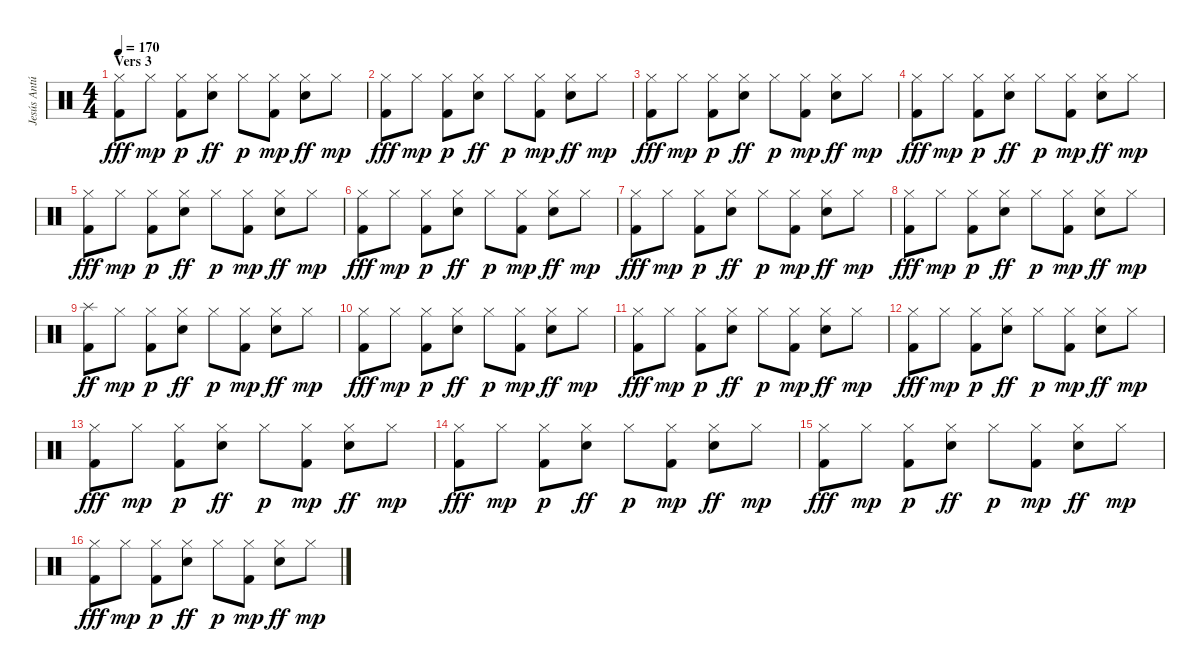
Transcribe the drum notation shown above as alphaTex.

\track ("Jesús Antúnez (Bateria)" "Jesús Antú") {instrument percussion}
\staff {score}
\articulation defaults
\ts (4 4)
\section ("" "Vers 3")
\tempo 170
\clef neutral
\ks c
("Kick (hit) 2" "Hi-Hat (closed)").8{dy fff} "Hi-Hat (closed)".8{dy mp} ("Kick (hit) 2" "Hi-Hat (closed)").8{dy p} ("Hi-Hat (closed)" "Electric Snare (hit)").8{dy ff} "Hi-Hat (closed)".8{dy p} ("Kick (hit) 2" "Hi-Hat (closed)").8{dy mp} ("Hi-Hat (closed)" "Electric Snare (hit)").8{dy ff} "Hi-Hat (closed)".8{dy mp} |
("Kick (hit) 2" "Hi-Hat (closed)").8{dy fff} "Hi-Hat (closed)".8{dy mp} ("Kick (hit) 2" "Hi-Hat (closed)").8{dy p} ("Hi-Hat (closed)" "Electric Snare (hit)").8{dy ff} "Hi-Hat (closed)".8{dy p} ("Kick (hit) 2" "Hi-Hat (closed)").8{dy mp} ("Hi-Hat (closed)" "Electric Snare (hit)").8{dy ff} "Hi-Hat (closed)".8{dy mp} |
("Kick (hit) 2" "Hi-Hat (closed)").8{dy fff} "Hi-Hat (closed)".8{dy mp} ("Kick (hit) 2" "Hi-Hat (closed)").8{dy p} ("Hi-Hat (closed)" "Electric Snare (hit)").8{dy ff} "Hi-Hat (closed)".8{dy p} ("Kick (hit) 2" "Hi-Hat (closed)").8{dy mp} ("Hi-Hat (closed)" "Electric Snare (hit)").8{dy ff} "Hi-Hat (closed)".8{dy mp} |
("Kick (hit) 2" "Hi-Hat (closed)").8{dy fff} "Hi-Hat (closed)".8{dy mp} ("Kick (hit) 2" "Hi-Hat (closed)").8{dy p} ("Hi-Hat (closed)" "Electric Snare (hit)").8{dy ff} "Hi-Hat (closed)".8{dy p} ("Kick (hit) 2" "Hi-Hat (closed)").8{dy mp} ("Hi-Hat (closed)" "Electric Snare (hit)").8{dy ff} "Hi-Hat (closed)".8{dy mp} |
("Kick (hit) 2" "Hi-Hat (closed)").8{dy fff} "Hi-Hat (closed)".8{dy mp} ("Kick (hit) 2" "Hi-Hat (closed)").8{dy p} ("Hi-Hat (closed)" "Electric Snare (hit)").8{dy ff} "Hi-Hat (closed)".8{dy p} ("Kick (hit) 2" "Hi-Hat (closed)").8{dy mp} ("Hi-Hat (closed)" "Electric Snare (hit)").8{dy ff} "Hi-Hat (closed)".8{dy mp} |
("Kick (hit) 2" "Hi-Hat (closed)").8{dy fff} "Hi-Hat (closed)".8{dy mp} ("Kick (hit) 2" "Hi-Hat (closed)").8{dy p} ("Hi-Hat (closed)" "Electric Snare (hit)").8{dy ff} "Hi-Hat (closed)".8{dy p} ("Kick (hit) 2" "Hi-Hat (closed)").8{dy mp} ("Hi-Hat (closed)" "Electric Snare (hit)").8{dy ff} "Hi-Hat (closed)".8{dy mp} |
("Kick (hit) 2" "Hi-Hat (closed)").8{dy fff} "Hi-Hat (closed)".8{dy mp} ("Kick (hit) 2" "Hi-Hat (closed)").8{dy p} ("Hi-Hat (closed)" "Electric Snare (hit)").8{dy ff} "Hi-Hat (closed)".8{dy p} ("Kick (hit) 2" "Hi-Hat (closed)").8{dy mp} ("Hi-Hat (closed)" "Electric Snare (hit)").8{dy ff} "Hi-Hat (closed)".8{dy mp} |
("Kick (hit) 2" "Hi-Hat (closed)").8{dy fff} "Hi-Hat (closed)".8{dy mp} ("Kick (hit) 2" "Hi-Hat (closed)").8{dy p} ("Hi-Hat (closed)" "Electric Snare (hit)").8{dy ff} "Hi-Hat (closed)".8{dy p} ("Kick (hit) 2" "Hi-Hat (closed)").8{dy mp} ("Hi-Hat (closed)" "Electric Snare (hit)").8{dy ff} "Hi-Hat (closed)".8{dy mp} |
("Splash (hit)" "Kick (hit) 2").8{dy ff} "Hi-Hat (closed)".8{dy mp} ("Kick (hit) 2" "Hi-Hat (closed)").8{dy p} ("Hi-Hat (closed)" "Electric Snare (hit)").8{dy ff} "Hi-Hat (closed)".8{dy p} ("Kick (hit) 2" "Hi-Hat (closed)").8{dy mp} ("Hi-Hat (closed)" "Electric Snare (hit)").8{dy ff} "Hi-Hat (closed)".8{dy mp} |
("Kick (hit) 2" "Hi-Hat (closed)").8{dy fff} "Hi-Hat (closed)".8{dy mp} ("Kick (hit) 2" "Hi-Hat (closed)").8{dy p} ("Hi-Hat (closed)" "Electric Snare (hit)").8{dy ff} "Hi-Hat (closed)".8{dy p} ("Kick (hit) 2" "Hi-Hat (closed)").8{dy mp} ("Hi-Hat (closed)" "Electric Snare (hit)").8{dy ff} "Hi-Hat (closed)".8{dy mp} |
("Kick (hit) 2" "Hi-Hat (closed)").8{dy fff} "Hi-Hat (closed)".8{dy mp} ("Kick (hit) 2" "Hi-Hat (closed)").8{dy p} ("Hi-Hat (closed)" "Electric Snare (hit)").8{dy ff} "Hi-Hat (closed)".8{dy p} ("Kick (hit) 2" "Hi-Hat (closed)").8{dy mp} ("Hi-Hat (closed)" "Electric Snare (hit)").8{dy ff} "Hi-Hat (closed)".8{dy mp} |
("Kick (hit) 2" "Hi-Hat (closed)").8{dy fff} "Hi-Hat (closed)".8{dy mp} ("Kick (hit) 2" "Hi-Hat (closed)").8{dy p} ("Hi-Hat (closed)" "Electric Snare (hit)").8{dy ff} "Hi-Hat (closed)".8{dy p} ("Kick (hit) 2" "Hi-Hat (closed)").8{dy mp} ("Hi-Hat (closed)" "Electric Snare (hit)").8{dy ff} "Hi-Hat (closed)".8{dy mp} |
("Kick (hit) 2" "Hi-Hat (closed)").8{dy fff} "Hi-Hat (closed)".8{dy mp} ("Kick (hit) 2" "Hi-Hat (closed)").8{dy p} ("Hi-Hat (closed)" "Electric Snare (hit)").8{dy ff} "Hi-Hat (closed)".8{dy p} ("Kick (hit) 2" "Hi-Hat (closed)").8{dy mp} ("Hi-Hat (closed)" "Electric Snare (hit)").8{dy ff} "Hi-Hat (closed)".8{dy mp} |
("Kick (hit) 2" "Hi-Hat (closed)").8{dy fff} "Hi-Hat (closed)".8{dy mp} ("Kick (hit) 2" "Hi-Hat (closed)").8{dy p} ("Hi-Hat (closed)" "Electric Snare (hit)").8{dy ff} "Hi-Hat (closed)".8{dy p} ("Kick (hit) 2" "Hi-Hat (closed)").8{dy mp} ("Hi-Hat (closed)" "Electric Snare (hit)").8{dy ff} "Hi-Hat (closed)".8{dy mp} |
("Kick (hit) 2" "Hi-Hat (closed)").8{dy fff} "Hi-Hat (closed)".8{dy mp} ("Kick (hit) 2" "Hi-Hat (closed)").8{dy p} ("Hi-Hat (closed)" "Electric Snare (hit)").8{dy ff} "Hi-Hat (closed)".8{dy p} ("Kick (hit) 2" "Hi-Hat (closed)").8{dy mp} ("Hi-Hat (closed)" "Electric Snare (hit)").8{dy ff} "Hi-Hat (closed)".8{dy mp} |
("Kick (hit) 2" "Hi-Hat (closed)").8{dy fff} "Hi-Hat (closed)".8{dy mp} ("Kick (hit) 2" "Hi-Hat (closed)").8{dy p} ("Hi-Hat (closed)" "Electric Snare (hit)").8{dy ff} "Hi-Hat (closed)".8{dy p} ("Kick (hit) 2" "Hi-Hat (closed)").8{dy mp} ("Hi-Hat (closed)" "Electric Snare (hit)").8{dy ff} "Hi-Hat (closed)".8{dy mp}
